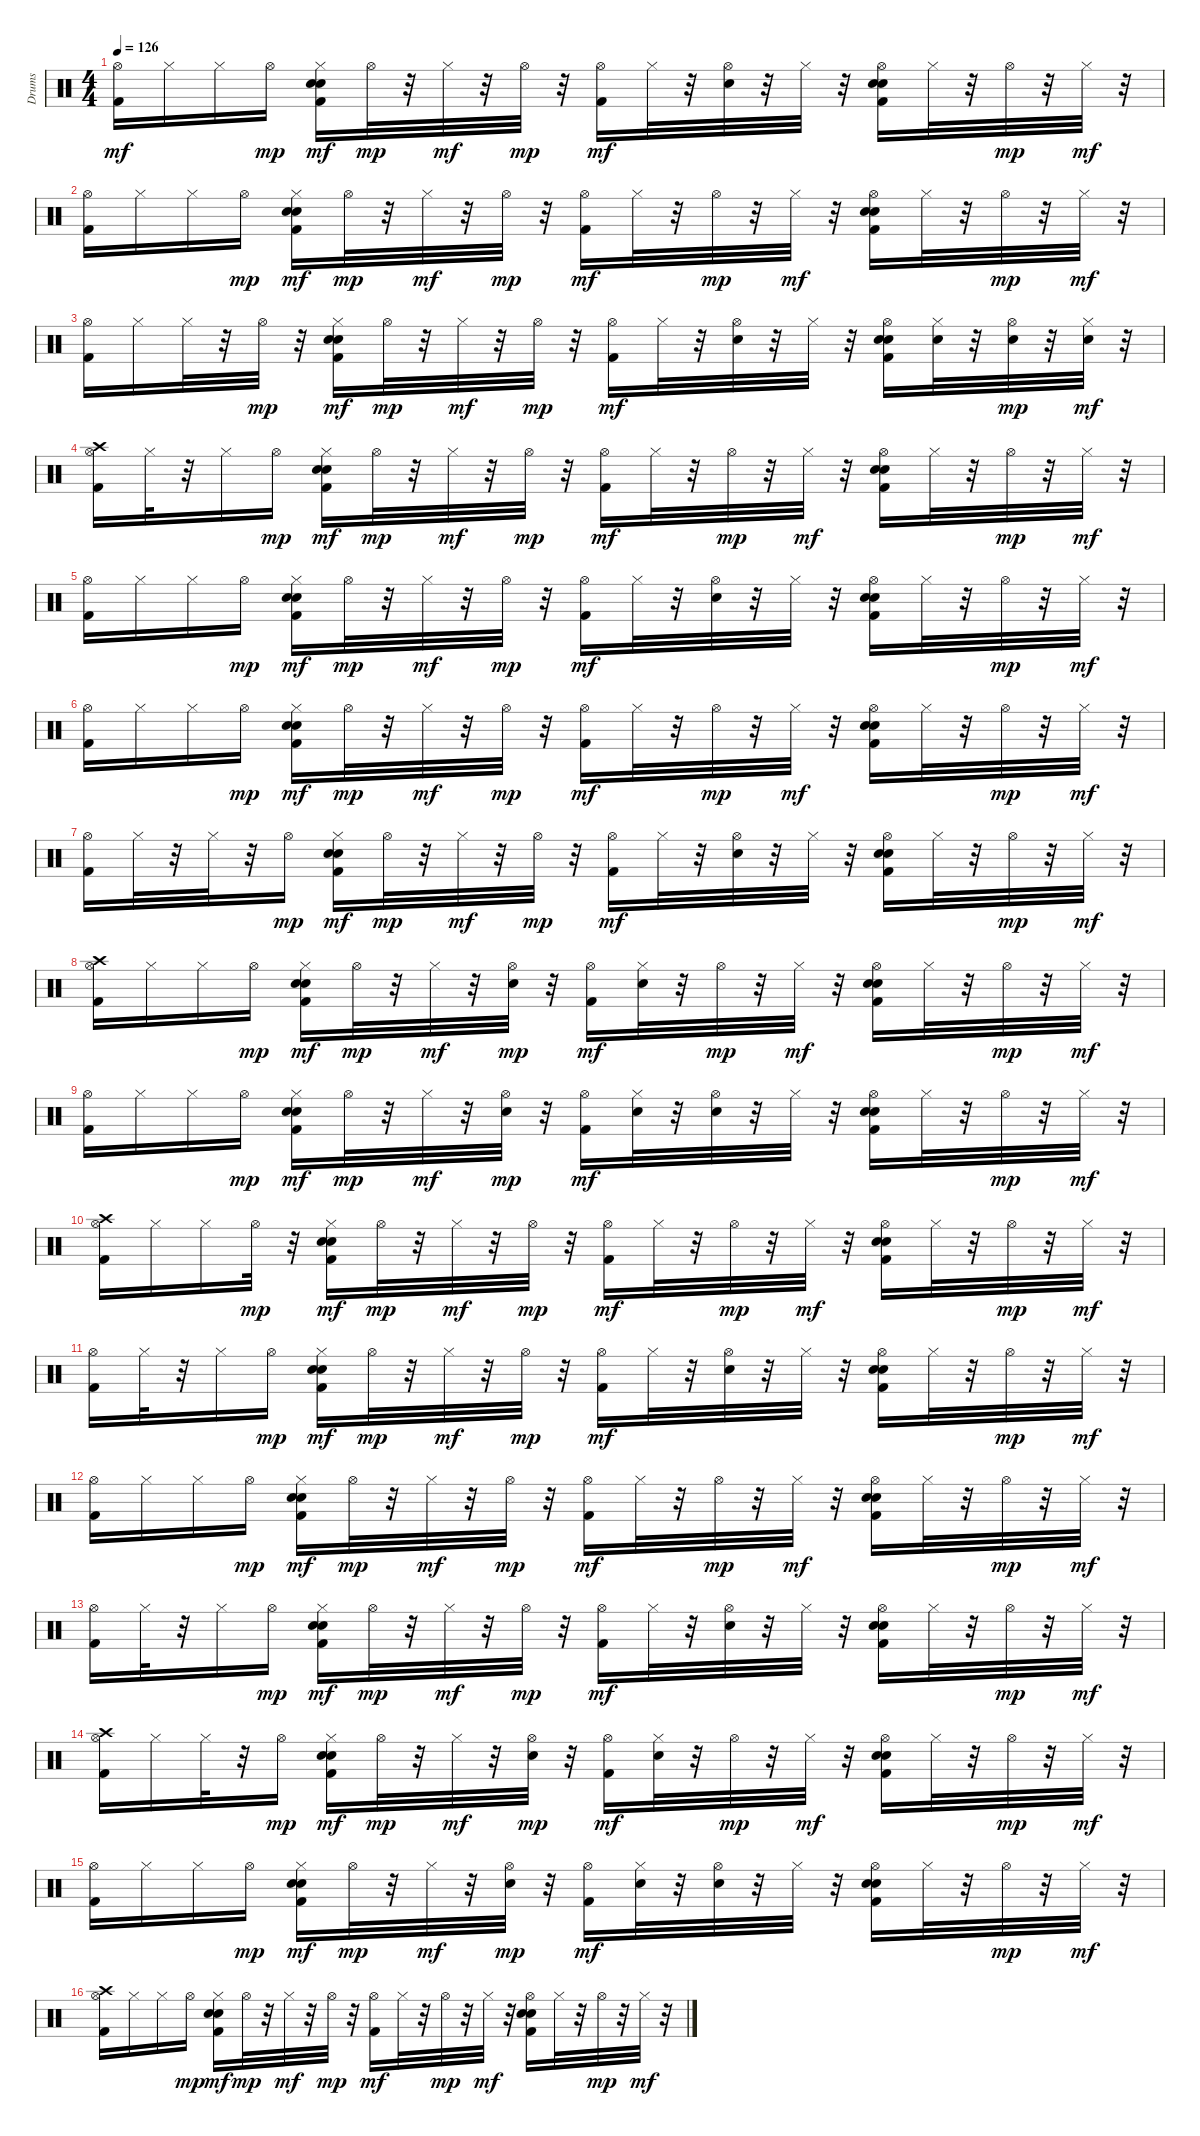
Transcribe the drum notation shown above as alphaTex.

\track ("Drums" "Drums") {instrument percussion}
\staff {score}
\articulation defaults
\ts (4 4)
\tempo 126
\clef neutral
\ks c
("Hi-Hat (open)" "Kick (hit) 2").16{dy mf} "Hi-Hat (closed)".16 "Hi-Hat (closed)".16 "Hi-Hat (open)".16{dy mp} ("Electric Snare (hit)" "Hi-Hat (closed)" "Hand Clap (hit)" "Kick (hit) 2").16{dy mf} "Hi-Hat (open)".32{dy mp} r.32 "Hi-Hat (closed)".32{dy mf} r.32 "Hi-Hat (open)".32{dy mp} r.32 ("Hi-Hat (open)" "Kick (hit) 2").16{dy mf} "Hi-Hat (closed)".32 r.32 ("Hi-Hat (open)" "Hand Clap (hit)").32 r.32 "Hi-Hat (closed)".32 r.32 ("Electric Snare (hit)" "Hi-Hat (open)" "Hand Clap (hit)" "Kick (hit) 2").16 "Hi-Hat (closed)".32 r.32 "Hi-Hat (open)".32{dy mp} r.32 "Hi-Hat (closed)".32{dy mf} r.32 |
("Hi-Hat (open)" "Kick (hit) 2").16 "Hi-Hat (closed)".16 "Hi-Hat (closed)".16 "Hi-Hat (open)".16{dy mp} ("Electric Snare (hit)" "Hi-Hat (closed)" "Hand Clap (hit)" "Kick (hit) 2").16{dy mf} "Hi-Hat (open)".32{dy mp} r.32 "Hi-Hat (closed)".32{dy mf} r.32 "Hi-Hat (open)".32{dy mp} r.32 ("Hi-Hat (open)" "Kick (hit) 2").16{dy mf} "Hi-Hat (closed)".32 r.32 "Hi-Hat (open)".32{dy mp} r.32 "Hi-Hat (closed)".32{dy mf} r.32 ("Electric Snare (hit)" "Hi-Hat (open)" "Hand Clap (hit)" "Kick (hit) 2").16 "Hi-Hat (closed)".32 r.32 "Hi-Hat (open)".32{dy mp} r.32 "Hi-Hat (closed)".32{dy mf} r.32 |
("Hi-Hat (open)" "Kick (hit) 2").16 "Hi-Hat (closed)".16 "Hi-Hat (closed)".32 r.32 "Hi-Hat (open)".32{dy mp} r.32 ("Electric Snare (hit)" "Hi-Hat (closed)" "Hand Clap (hit)" "Kick (hit) 2").16{dy mf} "Hi-Hat (open)".32{dy mp} r.32 "Hi-Hat (closed)".32{dy mf} r.32 "Hi-Hat (open)".32{dy mp} r.32 ("Hi-Hat (open)" "Kick (hit) 2").16{dy mf} "Hi-Hat (closed)".32 r.32 ("Hi-Hat (open)" "Hand Clap (hit)").32 r.32 "Hi-Hat (closed)".32 r.32 ("Hi-Hat (open)" "Hand Clap (hit)" "Kick (hit) 2" "Snare (hit) 2").16 ("Hi-Hat (closed)" "Snare (hit) 2").32 r.32 ("Hi-Hat (open)" "Snare (hit) 2").32{dy mp} r.32 ("Hi-Hat (closed)" "Snare (hit) 2").32{dy mf} r.32 |
("Hi-Hat (open)" "Crash high (hit)" "Kick (hit) 2").16 "Hi-Hat (closed)".32 r.32 "Hi-Hat (closed)".16 "Hi-Hat (open)".16{dy mp} ("Electric Snare (hit)" "Hi-Hat (closed)" "Hand Clap (hit)" "Kick (hit) 2").16{dy mf} "Hi-Hat (open)".32{dy mp} r.32 "Hi-Hat (closed)".32{dy mf} r.32 "Hi-Hat (open)".32{dy mp} r.32 ("Hi-Hat (open)" "Kick (hit) 2").16{dy mf} "Hi-Hat (closed)".32 r.32 "Hi-Hat (open)".32{dy mp} r.32 "Hi-Hat (closed)".32{dy mf} r.32 ("Electric Snare (hit)" "Hi-Hat (open)" "Hand Clap (hit)" "Kick (hit) 2").16 "Hi-Hat (closed)".32 r.32 "Hi-Hat (open)".32{dy mp} r.32 "Hi-Hat (closed)".32{dy mf} r.32 |
("Hi-Hat (open)" "Kick (hit) 2").16 "Hi-Hat (closed)".16 "Hi-Hat (closed)".16 "Hi-Hat (open)".16{dy mp} ("Hi-Hat (closed)" "Electric Snare (hit)" "Hand Clap (hit)" "Kick (hit) 2").16{dy mf} "Hi-Hat (open)".32{dy mp} r.32 "Hi-Hat (closed)".32{dy mf} r.32 "Hi-Hat (open)".32{dy mp} r.32 ("Hi-Hat (open)" "Kick (hit) 2").16{dy mf} "Hi-Hat (closed)".32 r.32 ("Hi-Hat (open)" "Hand Clap (hit)").32 r.32 "Hi-Hat (closed)".32 r.32 ("Hi-Hat (open)" "Electric Snare (hit)" "Hand Clap (hit)" "Kick (hit) 2").16 "Hi-Hat (closed)".32 r.32 "Hi-Hat (open)".32{dy mp} r.32 "Hi-Hat (closed)".32{dy mf} r.32 |
("Hi-Hat (open)" "Kick (hit) 2").16 "Hi-Hat (closed)".16 "Hi-Hat (closed)".16 "Hi-Hat (open)".16{dy mp} ("Hi-Hat (closed)" "Electric Snare (hit)" "Hand Clap (hit)" "Kick (hit) 2").16{dy mf} "Hi-Hat (open)".32{dy mp} r.32 "Hi-Hat (closed)".32{dy mf} r.32 "Hi-Hat (open)".32{dy mp} r.32 ("Hi-Hat (open)" "Kick (hit) 2").16{dy mf} "Hi-Hat (closed)".32 r.32 "Hi-Hat (open)".32{dy mp} r.32 "Hi-Hat (closed)".32{dy mf} r.32 ("Hi-Hat (open)" "Electric Snare (hit)" "Hand Clap (hit)" "Kick (hit) 2").16 "Hi-Hat (closed)".32 r.32 "Hi-Hat (open)".32{dy mp} r.32 "Hi-Hat (closed)".32{dy mf} r.32 |
("Hi-Hat (open)" "Kick (hit) 2").16 "Hi-Hat (closed)".32 r.32 "Hi-Hat (closed)".32 r.32 "Hi-Hat (open)".16{dy mp} ("Hi-Hat (closed)" "Electric Snare (hit)" "Hand Clap (hit)" "Kick (hit) 2").16{dy mf} "Hi-Hat (open)".32{dy mp} r.32 "Hi-Hat (closed)".32{dy mf} r.32 "Hi-Hat (open)".32{dy mp} r.32 ("Hi-Hat (open)" "Kick (hit) 2").16{dy mf} "Hi-Hat (closed)".32 r.32 ("Hi-Hat (open)" "Hand Clap (hit)").32 r.32 "Hi-Hat (closed)".32 r.32 ("Hi-Hat (open)" "Electric Snare (hit)" "Hand Clap (hit)" "Kick (hit) 2").16 "Hi-Hat (closed)".32 r.32 "Hi-Hat (open)".32{dy mp} r.32 "Hi-Hat (closed)".32{dy mf} r.32 |
("Hi-Hat (open)" "Crash high (hit)" "Kick (hit) 2").16 "Hi-Hat (closed)".16 "Hi-Hat (closed)".16 "Hi-Hat (open)".16{dy mp} ("Electric Snare (hit)" "Hi-Hat (closed)" "Hand Clap (hit)" "Kick (hit) 2").16{dy mf} "Hi-Hat (open)".32{dy mp} r.32 "Hi-Hat (closed)".32{dy mf} r.32 ("Snare (hit) 2" "Hi-Hat (open)").32{dy mp} r.32 ("Hi-Hat (open)" "Kick (hit) 2").16{dy mf} ("Snare (hit) 2" "Hi-Hat (closed)").32 r.32 "Hi-Hat (open)".32{dy mp} r.32 "Hi-Hat (closed)".32{dy mf} r.32 ("Electric Snare (hit)" "Hi-Hat (open)" "Hand Clap (hit)" "Kick (hit) 2").16 "Hi-Hat (closed)".32 r.32 "Hi-Hat (open)".32{dy mp} r.32 "Hi-Hat (closed)".32{dy mf} r.32 |
("Hi-Hat (open)" "Kick (hit) 2").16 "Hi-Hat (closed)".16 "Hi-Hat (closed)".16 "Hi-Hat (open)".16{dy mp} ("Electric Snare (hit)" "Hi-Hat (closed)" "Hand Clap (hit)" "Kick (hit) 2").16{dy mf} "Hi-Hat (open)".32{dy mp} r.32 "Hi-Hat (closed)".32{dy mf} r.32 ("Snare (hit) 2" "Hi-Hat (open)").32{dy mp} r.32 ("Hi-Hat (open)" "Kick (hit) 2").16{dy mf} ("Snare (hit) 2" "Hi-Hat (closed)").32 r.32 ("Hi-Hat (open)" "Hand Clap (hit)").32 r.32 "Hi-Hat (closed)".32 r.32 ("Electric Snare (hit)" "Hi-Hat (open)" "Hand Clap (hit)" "Kick (hit) 2").16 "Hi-Hat (closed)".32 r.32 "Hi-Hat (open)".32{dy mp} r.32 "Hi-Hat (closed)".32{dy mf} r.32 |
("Hi-Hat (open)" "Crash high (hit)" "Kick (hit) 2").16 "Hi-Hat (closed)".16 "Hi-Hat (closed)".16 "Hi-Hat (open)".32{dy mp} r.32 ("Hi-Hat (closed)" "Electric Snare (hit)" "Hand Clap (hit)" "Kick (hit) 2").16{dy mf} "Hi-Hat (open)".32{dy mp} r.32 "Hi-Hat (closed)".32{dy mf} r.32 "Hi-Hat (open)".32{dy mp} r.32 ("Hi-Hat (open)" "Kick (hit) 2").16{dy mf} "Hi-Hat (closed)".32 r.32 "Hi-Hat (open)".32{dy mp} r.32 "Hi-Hat (closed)".32{dy mf} r.32 ("Hi-Hat (open)" "Electric Snare (hit)" "Hand Clap (hit)" "Kick (hit) 2").16 "Hi-Hat (closed)".32 r.32 "Hi-Hat (open)".32{dy mp} r.32 "Hi-Hat (closed)".32{dy mf} r.32 |
("Hi-Hat (open)" "Kick (hit) 2").16 "Hi-Hat (closed)".32 r.32 "Hi-Hat (closed)".16 "Hi-Hat (open)".16{dy mp} ("Hi-Hat (closed)" "Electric Snare (hit)" "Hand Clap (hit)" "Kick (hit) 2").16{dy mf} "Hi-Hat (open)".32{dy mp} r.32 "Hi-Hat (closed)".32{dy mf} r.32 "Hi-Hat (open)".32{dy mp} r.32 ("Hi-Hat (open)" "Kick (hit) 2").16{dy mf} "Hi-Hat (closed)".32 r.32 ("Hi-Hat (open)" "Hand Clap (hit)").32 r.32 "Hi-Hat (closed)".32 r.32 ("Hi-Hat (open)" "Electric Snare (hit)" "Hand Clap (hit)" "Kick (hit) 2").16 "Hi-Hat (closed)".32 r.32 "Hi-Hat (open)".32{dy mp} r.32 "Hi-Hat (closed)".32{dy mf} r.32 |
("Hi-Hat (open)" "Kick (hit) 2").16 "Hi-Hat (closed)".16 "Hi-Hat (closed)".16 "Hi-Hat (open)".16{dy mp} ("Hi-Hat (closed)" "Electric Snare (hit)" "Hand Clap (hit)" "Kick (hit) 2").16{dy mf} "Hi-Hat (open)".32{dy mp} r.32 "Hi-Hat (closed)".32{dy mf} r.32 "Hi-Hat (open)".32{dy mp} r.32 ("Hi-Hat (open)" "Kick (hit) 2").16{dy mf} "Hi-Hat (closed)".32 r.32 "Hi-Hat (open)".32{dy mp} r.32 "Hi-Hat (closed)".32{dy mf} r.32 ("Hi-Hat (open)" "Electric Snare (hit)" "Hand Clap (hit)" "Kick (hit) 2").16 "Hi-Hat (closed)".32 r.32 "Hi-Hat (open)".32{dy mp} r.32 "Hi-Hat (closed)".32{dy mf} r.32 |
("Hi-Hat (open)" "Kick (hit) 2").16 "Hi-Hat (closed)".32 r.32 "Hi-Hat (closed)".16 "Hi-Hat (open)".16{dy mp} ("Hi-Hat (closed)" "Electric Snare (hit)" "Hand Clap (hit)" "Kick (hit) 2").16{dy mf} "Hi-Hat (open)".32{dy mp} r.32 "Hi-Hat (closed)".32{dy mf} r.32 "Hi-Hat (open)".32{dy mp} r.32 ("Hi-Hat (open)" "Kick (hit) 2").16{dy mf} "Hi-Hat (closed)".32 r.32 ("Hi-Hat (open)" "Hand Clap (hit)").32 r.32 "Hi-Hat (closed)".32 r.32 ("Hi-Hat (open)" "Electric Snare (hit)" "Hand Clap (hit)" "Kick (hit) 2").16 "Hi-Hat (closed)".32 r.32 "Hi-Hat (open)".32{dy mp} r.32 "Hi-Hat (closed)".32{dy mf} r.32 |
("Hi-Hat (open)" "Crash high (hit)" "Kick (hit) 2").16 "Hi-Hat (closed)".16 "Hi-Hat (closed)".32 r.32 "Hi-Hat (open)".16{dy mp} ("Electric Snare (hit)" "Hi-Hat (closed)" "Hand Clap (hit)" "Kick (hit) 2").16{dy mf} "Hi-Hat (open)".32{dy mp} r.32 "Hi-Hat (closed)".32{dy mf} r.32 ("Snare (hit) 2" "Hi-Hat (open)").32{dy mp} r.32 ("Hi-Hat (open)" "Kick (hit) 2").16{dy mf} ("Snare (hit) 2" "Hi-Hat (closed)").32 r.32 "Hi-Hat (open)".32{dy mp} r.32 "Hi-Hat (closed)".32{dy mf} r.32 ("Electric Snare (hit)" "Hi-Hat (open)" "Hand Clap (hit)" "Kick (hit) 2").16 "Hi-Hat (closed)".32 r.32 "Hi-Hat (open)".32{dy mp} r.32 "Hi-Hat (closed)".32{dy mf} r.32 |
("Hi-Hat (open)" "Kick (hit) 2").16 "Hi-Hat (closed)".16 "Hi-Hat (closed)".16 "Hi-Hat (open)".16{dy mp} ("Electric Snare (hit)" "Hi-Hat (closed)" "Hand Clap (hit)" "Kick (hit) 2").16{dy mf} "Hi-Hat (open)".32{dy mp} r.32 "Hi-Hat (closed)".32{dy mf} r.32 ("Snare (hit) 2" "Hi-Hat (open)").32{dy mp} r.32 ("Hi-Hat (open)" "Kick (hit) 2").16{dy mf} ("Snare (hit) 2" "Hi-Hat (closed)").32 r.32 ("Hi-Hat (open)" "Hand Clap (hit)").32 r.32 "Hi-Hat (closed)".32 r.32 ("Electric Snare (hit)" "Hi-Hat (open)" "Hand Clap (hit)" "Kick (hit) 2").16 "Hi-Hat (closed)".32 r.32 "Hi-Hat (open)".32{dy mp} r.32 "Hi-Hat (closed)".32{dy mf} r.32 |
("Hi-Hat (open)" "Crash high (hit)" "Kick (hit) 2").16 "Hi-Hat (closed)".16 "Hi-Hat (closed)".16 "Hi-Hat (open)".16{dy mp} ("Hi-Hat (closed)" "Electric Snare (hit)" "Hand Clap (hit)" "Kick (hit) 2").16{dy mf} "Hi-Hat (open)".32{dy mp} r.32 "Hi-Hat (closed)".32{dy mf} r.32 "Hi-Hat (open)".32{dy mp} r.32 ("Hi-Hat (open)" "Kick (hit) 2").16{dy mf} "Hi-Hat (closed)".32 r.32 "Hi-Hat (open)".32{dy mp} r.32 "Hi-Hat (closed)".32{dy mf} r.32 ("Hi-Hat (open)" "Electric Snare (hit)" "Hand Clap (hit)" "Kick (hit) 2").16 "Hi-Hat (closed)".32 r.32 "Hi-Hat (open)".32{dy mp} r.32 "Hi-Hat (closed)".32{dy mf} r.32
